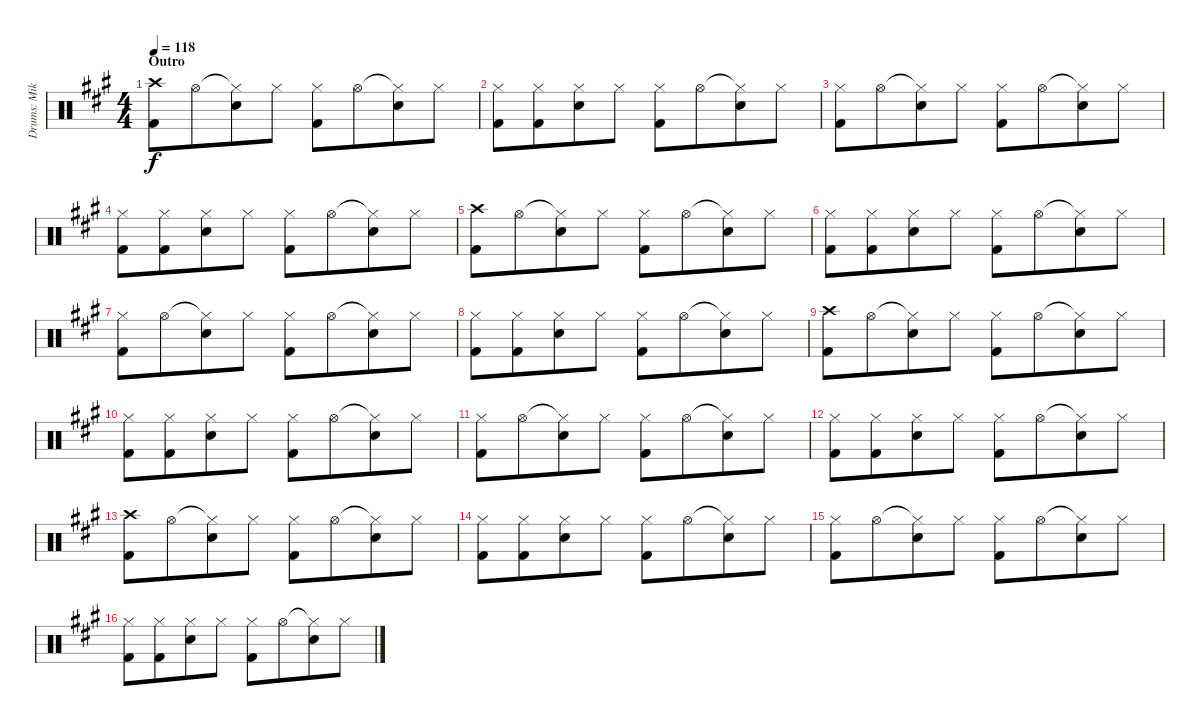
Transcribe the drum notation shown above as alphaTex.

\track ("Drums: Mike" "Drums: Mik") {instrument percussion}
\staff {score}
\articulation defaults
\ts (4 4)
\section ("" "Outro")
\tempo 118
\clef neutral
\ks a
("Crash high (hit)" "Kick (hit) 2").8{dy f} "Hi-Hat (open)".8{beam merge} ("Hi-Hat (closed)"{t} "Electric Snare (hit)").8{beam merge} "Hi-Hat (closed)".8 ("Hi-Hat (closed)" "Kick (hit) 2").8 "Hi-Hat (open)".8{beam merge} ("Hi-Hat (closed)"{t} "Electric Snare (hit)").8{beam merge} "Hi-Hat (closed)".8 |
("Hi-Hat (closed)" "Kick (hit) 2").8 ("Hi-Hat (closed)" "Kick (hit) 2").8{beam merge} ("Hi-Hat (closed)" "Electric Snare (hit)").8{beam merge} "Hi-Hat (closed)".8 ("Hi-Hat (closed)" "Kick (hit) 2").8 "Hi-Hat (open)".8{beam merge} ("Hi-Hat (closed)"{t} "Electric Snare (hit)").8{beam merge} "Hi-Hat (closed)".8 |
("Hi-Hat (closed)" "Kick (hit) 2").8 "Hi-Hat (open)".8{beam merge} ("Hi-Hat (closed)"{t} "Electric Snare (hit)").8{beam merge} "Hi-Hat (closed)".8 ("Hi-Hat (closed)" "Kick (hit) 2").8 "Hi-Hat (open)".8{beam merge} ("Hi-Hat (closed)"{t} "Electric Snare (hit)").8{beam merge} "Hi-Hat (closed)".8 |
("Hi-Hat (closed)" "Kick (hit) 2").8 ("Hi-Hat (closed)" "Kick (hit) 2").8{beam merge} ("Hi-Hat (closed)" "Electric Snare (hit)").8{beam merge} "Hi-Hat (closed)".8 ("Hi-Hat (closed)" "Kick (hit) 2").8 "Hi-Hat (open)".8{beam merge} ("Hi-Hat (closed)"{t} "Electric Snare (hit)").8{beam merge} "Hi-Hat (closed)".8 |
("Crash high (hit)" "Kick (hit) 2").8 "Hi-Hat (open)".8{beam merge} ("Hi-Hat (closed)"{t} "Electric Snare (hit)").8{beam merge} "Hi-Hat (closed)".8 ("Hi-Hat (closed)" "Kick (hit) 2").8 "Hi-Hat (open)".8{beam merge} ("Hi-Hat (closed)"{t} "Electric Snare (hit)").8{beam merge} "Hi-Hat (closed)".8 |
("Hi-Hat (closed)" "Kick (hit) 2").8 ("Hi-Hat (closed)" "Kick (hit) 2").8{beam merge} ("Hi-Hat (closed)" "Electric Snare (hit)").8{beam merge} "Hi-Hat (closed)".8 ("Hi-Hat (closed)" "Kick (hit) 2").8 "Hi-Hat (open)".8{beam merge} ("Hi-Hat (closed)"{t} "Electric Snare (hit)").8{beam merge} "Hi-Hat (closed)".8 |
("Hi-Hat (closed)" "Kick (hit) 2").8 "Hi-Hat (open)".8{beam merge} ("Hi-Hat (closed)"{t} "Electric Snare (hit)").8{beam merge} "Hi-Hat (closed)".8 ("Hi-Hat (closed)" "Kick (hit) 2").8 "Hi-Hat (open)".8{beam merge} ("Hi-Hat (closed)"{t} "Electric Snare (hit)").8{beam merge} "Hi-Hat (closed)".8 |
("Hi-Hat (closed)" "Kick (hit) 2").8 ("Hi-Hat (closed)" "Kick (hit) 2").8{beam merge} ("Hi-Hat (closed)" "Electric Snare (hit)").8{beam merge} "Hi-Hat (closed)".8 ("Hi-Hat (closed)" "Kick (hit) 2").8 "Hi-Hat (open)".8{beam merge} ("Hi-Hat (closed)"{t} "Electric Snare (hit)").8{beam merge} "Hi-Hat (closed)".8 |
("Crash high (hit)" "Kick (hit) 2").8 "Hi-Hat (open)".8{beam merge} ("Hi-Hat (closed)"{t} "Electric Snare (hit)").8{beam merge} "Hi-Hat (closed)".8 ("Hi-Hat (closed)" "Kick (hit) 2").8 "Hi-Hat (open)".8{beam merge} ("Hi-Hat (closed)"{t} "Electric Snare (hit)").8{beam merge} "Hi-Hat (closed)".8 |
("Hi-Hat (closed)" "Kick (hit) 2").8 ("Hi-Hat (closed)" "Kick (hit) 2").8{beam merge} ("Hi-Hat (closed)" "Electric Snare (hit)").8{beam merge} "Hi-Hat (closed)".8 ("Hi-Hat (closed)" "Kick (hit) 2").8 "Hi-Hat (open)".8{beam merge} ("Hi-Hat (closed)"{t} "Electric Snare (hit)").8{beam merge} "Hi-Hat (closed)".8 |
("Hi-Hat (closed)" "Kick (hit) 2").8 "Hi-Hat (open)".8{beam merge} ("Hi-Hat (closed)"{t} "Electric Snare (hit)").8{beam merge} "Hi-Hat (closed)".8 ("Hi-Hat (closed)" "Kick (hit) 2").8 "Hi-Hat (open)".8{beam merge} ("Hi-Hat (closed)"{t} "Electric Snare (hit)").8{beam merge} "Hi-Hat (closed)".8 |
("Hi-Hat (closed)" "Kick (hit) 2").8 ("Hi-Hat (closed)" "Kick (hit) 2").8{beam merge} ("Hi-Hat (closed)" "Electric Snare (hit)").8{beam merge} "Hi-Hat (closed)".8 ("Hi-Hat (closed)" "Kick (hit) 2").8 "Hi-Hat (open)".8{beam merge} ("Hi-Hat (closed)"{t} "Electric Snare (hit)").8{beam merge} "Hi-Hat (closed)".8 |
("Crash high (hit)" "Kick (hit) 2").8 "Hi-Hat (open)".8{beam merge} ("Hi-Hat (closed)"{t} "Electric Snare (hit)").8{beam merge} "Hi-Hat (closed)".8 ("Hi-Hat (closed)" "Kick (hit) 2").8 "Hi-Hat (open)".8{beam merge} ("Hi-Hat (closed)"{t} "Electric Snare (hit)").8{beam merge} "Hi-Hat (closed)".8 |
("Hi-Hat (closed)" "Kick (hit) 2").8 ("Hi-Hat (closed)" "Kick (hit) 2").8{beam merge} ("Hi-Hat (closed)" "Electric Snare (hit)").8{beam merge} "Hi-Hat (closed)".8 ("Hi-Hat (closed)" "Kick (hit) 2").8 "Hi-Hat (open)".8{beam merge} ("Hi-Hat (closed)"{t} "Electric Snare (hit)").8{beam merge} "Hi-Hat (closed)".8 |
("Hi-Hat (closed)" "Kick (hit) 2").8 "Hi-Hat (open)".8{beam merge} ("Hi-Hat (closed)"{t} "Electric Snare (hit)").8{beam merge} "Hi-Hat (closed)".8 ("Hi-Hat (closed)" "Kick (hit) 2").8 "Hi-Hat (open)".8{beam merge} ("Hi-Hat (closed)"{t} "Electric Snare (hit)").8{beam merge} "Hi-Hat (closed)".8 |
("Hi-Hat (closed)" "Kick (hit) 2").8 ("Hi-Hat (closed)" "Kick (hit) 2").8{beam merge} ("Hi-Hat (closed)" "Electric Snare (hit)").8{beam merge} "Hi-Hat (closed)".8 ("Hi-Hat (closed)" "Kick (hit) 2").8 "Hi-Hat (open)".8{beam merge} ("Hi-Hat (closed)"{t} "Electric Snare (hit)").8{beam merge} "Hi-Hat (closed)".8
